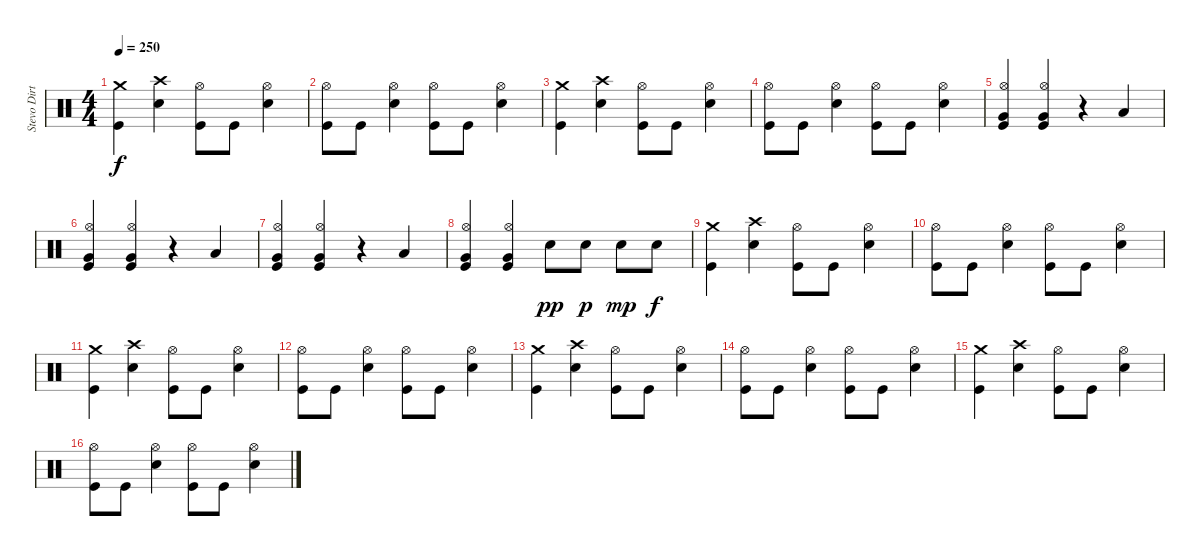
\track ("Stevo Dirty Poo" "Stevo Dirt") {instrument percussion}
\staff {score}
\articulation defaults
\ts (4 4)
\tempo 250
\clef neutral
\ks c
("Crash medium (hit)" "Kick (hit)").4{dy f} ("Crash high (hit)" "Snare (hit) 2").4 ("Hi-Hat (open)" "Kick (hit)").8 "Kick (hit)".8 ("Hi-Hat (open)" "Snare (hit) 2").4 |
("Hi-Hat (open)" "Kick (hit)").8 "Kick (hit)".8 ("Hi-Hat (open)" "Snare (hit) 2").4 ("Hi-Hat (open)" "Kick (hit)").8 "Kick (hit)".8 ("Hi-Hat (open)" "Snare (hit) 2").4 |
("Crash medium (hit)" "Kick (hit)").4 ("Crash high (hit)" "Snare (hit) 2").4 ("Hi-Hat (open)" "Kick (hit)").8 "Kick (hit)".8 ("Hi-Hat (open)" "Snare (hit) 2").4 |
("Hi-Hat (open)" "Kick (hit)").8 "Kick (hit)".8 ("Hi-Hat (open)" "Snare (hit) 2").4 ("Hi-Hat (open)" "Kick (hit)").8 "Kick (hit)".8 ("Hi-Hat (open)" "Snare (hit) 2").4 |
("Hi-Hat (open)" "Very Low Tom (hit)" "Kick (hit)").4 ("Hi-Hat (open)" "Very Low Tom (hit)" "Kick (hit)").4 r.4 "Low Tom (hit)".4 |
("Hi-Hat (open)" "Very Low Tom (hit)" "Kick (hit)").4 ("Hi-Hat (open)" "Very Low Tom (hit)" "Kick (hit)").4 r.4 "Low Tom (hit)".4 |
("Hi-Hat (open)" "Very Low Tom (hit)" "Kick (hit)").4 ("Hi-Hat (open)" "Very Low Tom (hit)" "Kick (hit)").4 r.4 "Low Tom (hit)".4 |
("Hi-Hat (open)" "Very Low Tom (hit)" "Kick (hit)").4 ("Hi-Hat (open)" "Very Low Tom (hit)" "Kick (hit)").4 "Snare (hit) 2".8{dy pp} "Snare (hit) 2".8{dy p} "Snare (hit) 2".8{dy mp} "Snare (hit) 2".8{dy f} |
("Crash medium (hit)" "Kick (hit)").4 ("Crash high (hit)" "Snare (hit) 2").4 ("Hi-Hat (open)" "Kick (hit)").8 "Kick (hit)".8 ("Hi-Hat (open)" "Snare (hit) 2").4 |
("Hi-Hat (open)" "Kick (hit)").8 "Kick (hit)".8 ("Hi-Hat (open)" "Snare (hit) 2").4 ("Hi-Hat (open)" "Kick (hit)").8 "Kick (hit)".8 ("Hi-Hat (open)" "Snare (hit) 2").4 |
("Crash medium (hit)" "Kick (hit)").4 ("Crash high (hit)" "Snare (hit) 2").4 ("Hi-Hat (open)" "Kick (hit)").8 "Kick (hit)".8 ("Hi-Hat (open)" "Snare (hit) 2").4 |
("Hi-Hat (open)" "Kick (hit)").8 "Kick (hit)".8 ("Hi-Hat (open)" "Snare (hit) 2").4 ("Hi-Hat (open)" "Kick (hit)").8 "Kick (hit)".8 ("Hi-Hat (open)" "Snare (hit) 2").4 |
("Crash medium (hit)" "Kick (hit)").4 ("Crash high (hit)" "Snare (hit) 2").4 ("Hi-Hat (open)" "Kick (hit)").8 "Kick (hit)".8 ("Hi-Hat (open)" "Snare (hit) 2").4 |
("Hi-Hat (open)" "Kick (hit)").8 "Kick (hit)".8 ("Hi-Hat (open)" "Snare (hit) 2").4 ("Hi-Hat (open)" "Kick (hit)").8 "Kick (hit)".8 ("Hi-Hat (open)" "Snare (hit) 2").4 |
("Crash medium (hit)" "Kick (hit)").4 ("Crash high (hit)" "Snare (hit) 2").4 ("Hi-Hat (open)" "Kick (hit)").8 "Kick (hit)".8 ("Hi-Hat (open)" "Snare (hit) 2").4 |
("Hi-Hat (open)" "Kick (hit)").8 "Kick (hit)".8 ("Hi-Hat (open)" "Snare (hit) 2").4 ("Hi-Hat (open)" "Kick (hit)").8 "Kick (hit)".8 ("Hi-Hat (open)" "Snare (hit) 2").4
